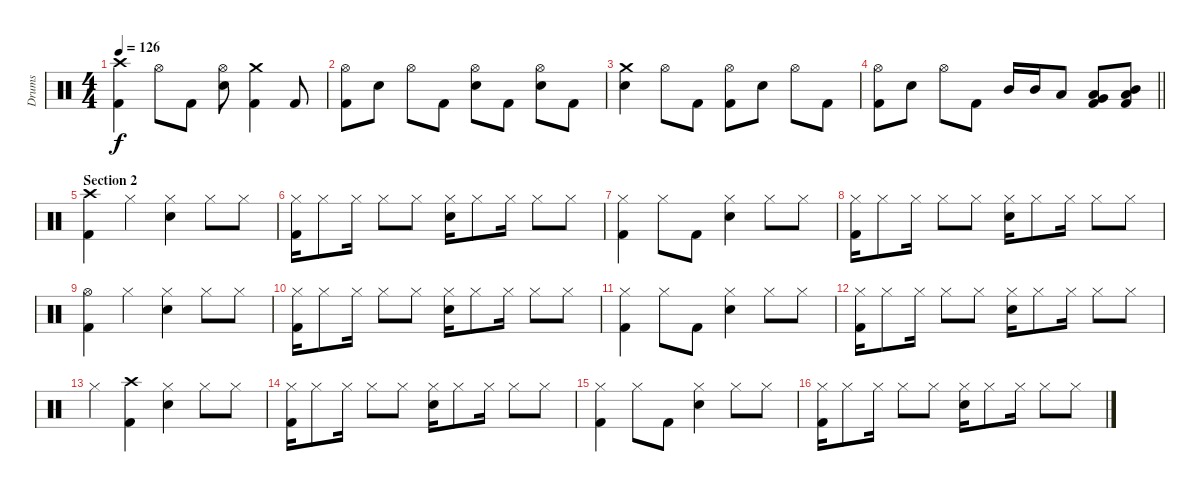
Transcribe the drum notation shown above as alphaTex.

\track ("Drums" "Drums") {instrument percussion}
\staff {score}
\articulation defaults
\ts (4 4)
\tempo 126
\clef neutral
\ks c
("Crash high (hit)" "Kick (hit) 2").4{dy f} "Hi-Hat (open)".8 "Kick (hit) 2".8 ("Hi-Hat (open)" "Electric Snare (hit)").8 ("Crash medium (hit)" "Kick (hit) 2").4 "Kick (hit) 2".8 |
("Hi-Hat (open)" "Kick (hit) 2").8 "Electric Snare (hit)".8 "Hi-Hat (open)".8 "Kick (hit) 2".8 ("Hi-Hat (open)" "Electric Snare (hit)").8 "Kick (hit) 2".8 ("Hi-Hat (open)" "Electric Snare (hit)").8 "Kick (hit) 2".8 |
("Crash medium (hit)" "Electric Snare (hit)").4 "Hi-Hat (open)".8 "Kick (hit) 2".8 ("Hi-Hat (open)" "Kick (hit) 2").8 "Electric Snare (hit)".8 "Hi-Hat (open)".8 "Kick (hit) 2".8 |
\barLineRight lightlight
("Hi-Hat (open)" "Kick (hit) 2").8 "Electric Snare (hit)".8 "Hi-Hat (open)".8 "Kick (hit) 2".8 "Mid Tom (hit)".16 "Mid Tom (hit)".16 "Low Tom (hit)".8 ("Low Tom (hit)" "Very Low Tom (hit)" "Kick (hit) 2").8 ("Mid Tom (hit)" "Low Tom (hit)" "Kick (hit) 2").8 |
\section ("" "Section 2")
("Crash high (hit)" "Kick (hit) 2").4 "Hi-Hat (closed)".4 ("Hi-Hat (closed)" "Electric Snare (hit)").4 "Hi-Hat (closed)".8 "Hi-Hat (closed)".8 |
("Hi-Hat (closed)" "Kick (hit) 2").16 "Hi-Hat (closed)".8 "Hi-Hat (closed)".16 "Hi-Hat (closed)".8 "Hi-Hat (closed)".8 ("Hi-Hat (closed)" "Electric Snare (hit)").16 "Hi-Hat (closed)".8 "Hi-Hat (closed)".16 "Hi-Hat (closed)".8 "Hi-Hat (closed)".8 |
("Hi-Hat (closed)" "Kick (hit) 2").4 "Hi-Hat (closed)".8 "Kick (hit) 2".8 ("Hi-Hat (closed)" "Electric Snare (hit)").4 "Hi-Hat (closed)".8 "Hi-Hat (closed)".8 |
("Hi-Hat (closed)" "Kick (hit) 2").16 "Hi-Hat (closed)".8 "Hi-Hat (closed)".16 "Hi-Hat (closed)".8 "Hi-Hat (closed)".8 ("Hi-Hat (closed)" "Electric Snare (hit)").16 "Hi-Hat (closed)".8 "Hi-Hat (closed)".16 "Hi-Hat (closed)".8 "Hi-Hat (closed)".8 |
("Hi-Hat (open)" "Kick (hit) 2").4 "Hi-Hat (closed)".4 ("Hi-Hat (closed)" "Electric Snare (hit)").4 "Hi-Hat (closed)".8 "Hi-Hat (closed)".8 |
("Hi-Hat (closed)" "Kick (hit) 2").16 "Hi-Hat (closed)".8 "Hi-Hat (closed)".16 "Hi-Hat (closed)".8 "Hi-Hat (closed)".8 ("Hi-Hat (closed)" "Electric Snare (hit)").16 "Hi-Hat (closed)".8 "Hi-Hat (closed)".16 "Hi-Hat (closed)".8 "Hi-Hat (closed)".8 |
("Hi-Hat (closed)" "Kick (hit) 2").4 "Hi-Hat (closed)".8 "Kick (hit) 2".8 ("Hi-Hat (closed)" "Electric Snare (hit)").4 "Hi-Hat (closed)".8 "Hi-Hat (closed)".8 |
("Hi-Hat (closed)" "Kick (hit) 2").16 "Hi-Hat (closed)".8 "Hi-Hat (closed)".16 "Hi-Hat (closed)".8 "Hi-Hat (closed)".8 ("Hi-Hat (closed)" "Electric Snare (hit)").16 "Hi-Hat (closed)".8 "Hi-Hat (closed)".16 "Hi-Hat (closed)".8 "Hi-Hat (closed)".8 |
"Hi-Hat (closed)".4 ("Crash high (hit)" "Kick (hit) 2").4 ("Hi-Hat (closed)" "Electric Snare (hit)").4 "Hi-Hat (closed)".8 "Hi-Hat (closed)".8 |
("Hi-Hat (closed)" "Kick (hit) 2").16 "Hi-Hat (closed)".8 "Hi-Hat (closed)".16 "Hi-Hat (closed)".8 "Hi-Hat (closed)".8 ("Hi-Hat (closed)" "Electric Snare (hit)").16 "Hi-Hat (closed)".8 "Hi-Hat (closed)".16 "Hi-Hat (closed)".8 "Hi-Hat (closed)".8 |
("Hi-Hat (closed)" "Kick (hit) 2").4 "Hi-Hat (closed)".8 "Kick (hit) 2".8 ("Hi-Hat (closed)" "Electric Snare (hit)").4 "Hi-Hat (closed)".8 "Hi-Hat (closed)".8 |
("Hi-Hat (closed)" "Kick (hit) 2").16 "Hi-Hat (closed)".8 "Hi-Hat (closed)".16 "Hi-Hat (closed)".8 "Hi-Hat (closed)".8 ("Hi-Hat (closed)" "Electric Snare (hit)").16 "Hi-Hat (closed)".8 "Hi-Hat (closed)".16 "Hi-Hat (closed)".8 "Hi-Hat (closed)".8
